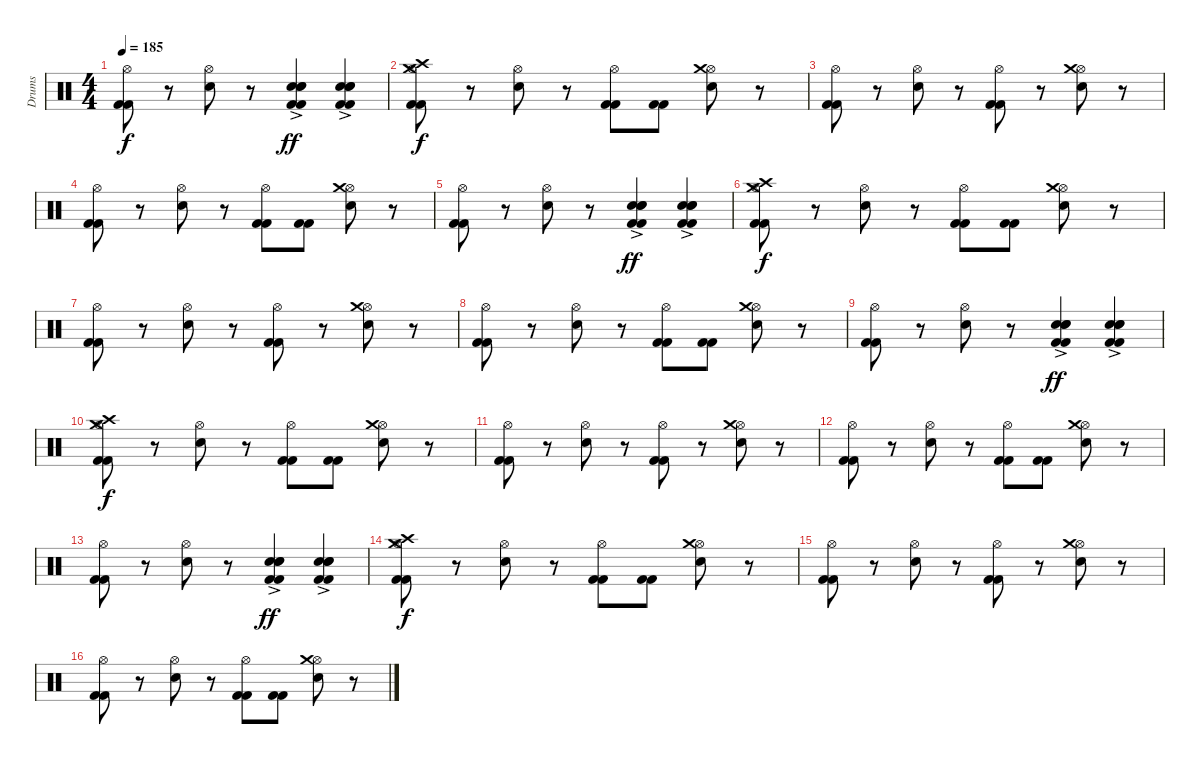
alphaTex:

\track ("Drums" "Drums") {instrument percussion}
\staff {score}
\articulation defaults
\ts (4 4)
\tempo 185
\clef neutral
\ks c
("Kick (hit) 2" "Kick (hit) 2" "Hi-Hat (open)").8{dy f} r.8 ("Hi-Hat (open)" "Snare (hit) 2").8 r.8 ("Kick (hit) 2" "Kick (hit) 2" "Snare (hit) 2" "Snare (hit) 2"{ac} "Snare (hit) 2").4{dy ff} ("Kick (hit) 2" "Kick (hit) 2" "Snare (hit) 2" "Snare (hit) 2"{ac} "Snare (hit) 2").4 |
("Kick (hit) 2" "Kick (hit) 2" "Hi-Hat (open)" "Crash high (hit)" "Crash medium (hit)").8{dy f} r.8 ("Hi-Hat (open)" "Snare (hit) 2").8 r.8 ("Kick (hit) 2" "Kick (hit) 2" "Hi-Hat (open)").8 ("Kick (hit) 2" "Kick (hit) 2").8 ("Hi-Hat (open)" "Snare (hit) 2" "Crash medium (hit)").8 r.8 |
("Kick (hit) 2" "Kick (hit) 2" "Hi-Hat (open)").8 r.8 ("Hi-Hat (open)" "Snare (hit) 2").8 r.8 ("Kick (hit) 2" "Kick (hit) 2" "Hi-Hat (open)").8 r.8 ("Hi-Hat (open)" "Snare (hit) 2" "Crash medium (hit)").8 r.8 |
("Kick (hit) 2" "Kick (hit) 2" "Hi-Hat (open)").8 r.8 ("Hi-Hat (open)" "Snare (hit) 2").8 r.8 ("Kick (hit) 2" "Kick (hit) 2" "Hi-Hat (open)").8 ("Kick (hit) 2" "Kick (hit) 2").8 ("Hi-Hat (open)" "Snare (hit) 2" "Crash medium (hit)").8 r.8 |
("Kick (hit) 2" "Kick (hit) 2" "Hi-Hat (open)").8 r.8 ("Hi-Hat (open)" "Snare (hit) 2").8 r.8 ("Kick (hit) 2" "Kick (hit) 2" "Snare (hit) 2" "Snare (hit) 2"{ac} "Snare (hit) 2").4{dy ff} ("Kick (hit) 2" "Kick (hit) 2" "Snare (hit) 2" "Snare (hit) 2"{ac} "Snare (hit) 2").4 |
("Kick (hit) 2" "Kick (hit) 2" "Hi-Hat (open)" "Crash high (hit)" "Crash medium (hit)").8{dy f} r.8 ("Hi-Hat (open)" "Snare (hit) 2").8 r.8 ("Kick (hit) 2" "Kick (hit) 2" "Hi-Hat (open)").8 ("Kick (hit) 2" "Kick (hit) 2").8 ("Hi-Hat (open)" "Snare (hit) 2" "Crash medium (hit)").8 r.8 |
("Kick (hit) 2" "Kick (hit) 2" "Hi-Hat (open)").8 r.8 ("Hi-Hat (open)" "Snare (hit) 2").8 r.8 ("Kick (hit) 2" "Kick (hit) 2" "Hi-Hat (open)").8 r.8 ("Hi-Hat (open)" "Snare (hit) 2" "Crash medium (hit)").8 r.8 |
("Kick (hit) 2" "Kick (hit) 2" "Hi-Hat (open)").8 r.8 ("Hi-Hat (open)" "Snare (hit) 2").8 r.8 ("Kick (hit) 2" "Kick (hit) 2" "Hi-Hat (open)").8 ("Kick (hit) 2" "Kick (hit) 2").8 ("Hi-Hat (open)" "Snare (hit) 2" "Crash medium (hit)").8 r.8 |
("Kick (hit) 2" "Kick (hit) 2" "Hi-Hat (open)").8 r.8 ("Hi-Hat (open)" "Snare (hit) 2").8 r.8 ("Kick (hit) 2" "Kick (hit) 2" "Snare (hit) 2" "Snare (hit) 2"{ac} "Snare (hit) 2").4{dy ff} ("Kick (hit) 2" "Kick (hit) 2" "Snare (hit) 2" "Snare (hit) 2"{ac} "Snare (hit) 2").4 |
("Kick (hit) 2" "Kick (hit) 2" "Hi-Hat (open)" "Crash high (hit)" "Crash medium (hit)").8{dy f} r.8 ("Hi-Hat (open)" "Snare (hit) 2").8 r.8 ("Kick (hit) 2" "Kick (hit) 2" "Hi-Hat (open)").8 ("Kick (hit) 2" "Kick (hit) 2").8 ("Hi-Hat (open)" "Snare (hit) 2" "Crash medium (hit)").8 r.8 |
("Kick (hit) 2" "Kick (hit) 2" "Hi-Hat (open)").8 r.8 ("Hi-Hat (open)" "Snare (hit) 2").8 r.8 ("Kick (hit) 2" "Kick (hit) 2" "Hi-Hat (open)").8 r.8 ("Hi-Hat (open)" "Snare (hit) 2" "Crash medium (hit)").8 r.8 |
("Kick (hit) 2" "Kick (hit) 2" "Hi-Hat (open)").8 r.8 ("Hi-Hat (open)" "Snare (hit) 2").8 r.8 ("Kick (hit) 2" "Kick (hit) 2" "Hi-Hat (open)").8 ("Kick (hit) 2" "Kick (hit) 2").8 ("Hi-Hat (open)" "Snare (hit) 2" "Crash medium (hit)").8 r.8 |
("Kick (hit) 2" "Kick (hit) 2" "Hi-Hat (open)").8 r.8 ("Hi-Hat (open)" "Snare (hit) 2").8 r.8 ("Kick (hit) 2" "Kick (hit) 2" "Snare (hit) 2" "Snare (hit) 2"{ac} "Snare (hit) 2").4{dy ff} ("Kick (hit) 2" "Kick (hit) 2" "Snare (hit) 2" "Snare (hit) 2"{ac} "Snare (hit) 2").4 |
("Kick (hit) 2" "Kick (hit) 2" "Hi-Hat (open)" "Crash high (hit)" "Crash medium (hit)").8{dy f} r.8 ("Hi-Hat (open)" "Snare (hit) 2").8 r.8 ("Kick (hit) 2" "Kick (hit) 2" "Hi-Hat (open)").8 ("Kick (hit) 2" "Kick (hit) 2").8 ("Hi-Hat (open)" "Snare (hit) 2" "Crash medium (hit)").8 r.8 |
("Kick (hit) 2" "Kick (hit) 2" "Hi-Hat (open)").8 r.8 ("Hi-Hat (open)" "Snare (hit) 2").8 r.8 ("Kick (hit) 2" "Kick (hit) 2" "Hi-Hat (open)").8 r.8 ("Hi-Hat (open)" "Snare (hit) 2" "Crash medium (hit)").8 r.8 |
("Kick (hit) 2" "Kick (hit) 2" "Hi-Hat (open)").8 r.8 ("Hi-Hat (open)" "Snare (hit) 2").8 r.8 ("Kick (hit) 2" "Kick (hit) 2" "Hi-Hat (open)").8 ("Kick (hit) 2" "Kick (hit) 2").8 ("Hi-Hat (open)" "Snare (hit) 2" "Crash medium (hit)").8 r.8
